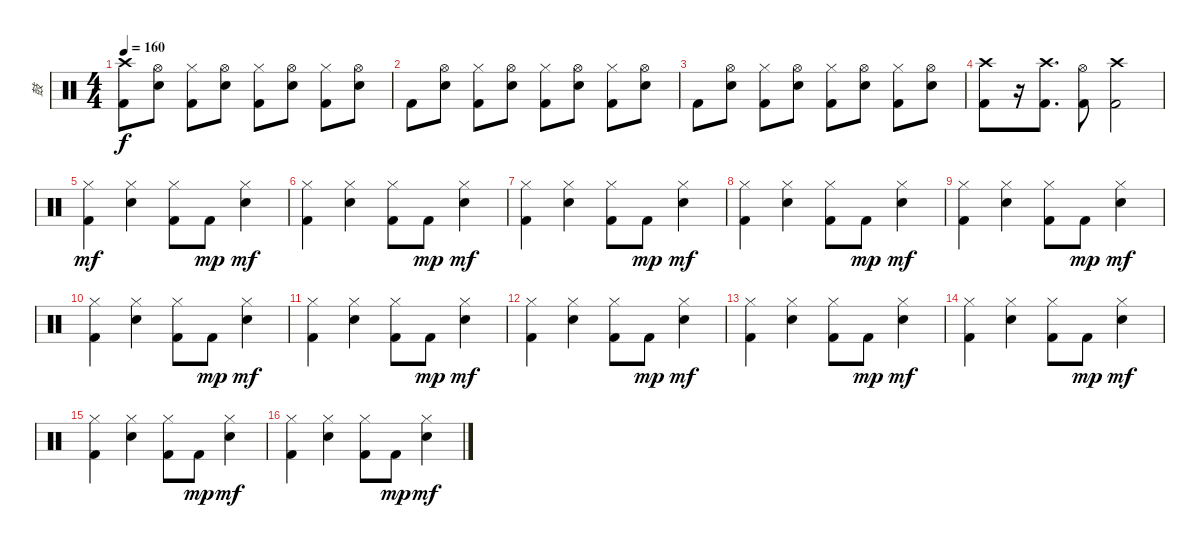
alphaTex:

\track ("鼓" "鼓") {instrument percussion}
\staff {score}
\articulation defaults
\ts (4 4)
\tempo 160
\clef neutral
\ks c
("Crash high (hit)" "Kick (hit) 2").8{dy f} ("Hi-Hat (open)" "Electric Snare (hit)").8 ("Hi-Hat (closed)" "Kick (hit) 2").8 ("Hi-Hat (open)" "Electric Snare (hit)").8 ("Hi-Hat (closed)" "Kick (hit) 2").8 ("Hi-Hat (open)" "Electric Snare (hit)").8 ("Hi-Hat (closed)" "Kick (hit) 2").8 ("Hi-Hat (open)" "Electric Snare (hit)").8 |
"Kick (hit) 2".8 ("Hi-Hat (open)" "Electric Snare (hit)").8 ("Hi-Hat (closed)" "Kick (hit) 2").8 ("Hi-Hat (open)" "Electric Snare (hit)").8 ("Hi-Hat (closed)" "Kick (hit) 2").8 ("Hi-Hat (open)" "Electric Snare (hit)").8 ("Hi-Hat (closed)" "Kick (hit) 2").8 ("Hi-Hat (open)" "Electric Snare (hit)").8 |
"Kick (hit) 2".8 ("Hi-Hat (open)" "Electric Snare (hit)").8 ("Hi-Hat (closed)" "Kick (hit) 2").8 ("Hi-Hat (open)" "Electric Snare (hit)").8 ("Hi-Hat (closed)" "Kick (hit) 2").8 ("Hi-Hat (open)" "Electric Snare (hit)").8 ("Hi-Hat (closed)" "Kick (hit) 2").8 ("Hi-Hat (open)" "Electric Snare (hit)").8 |
("Crash high (hit)" "Kick (hit) 2").8 r.16 ("Crash high (hit)" "Kick (hit) 2").8{d} ("Hi-Hat (open)" "Kick (hit) 2").8 ("Crash high (hit)" "Kick (hit) 2").2 |
("Hi-Hat (closed)" "Kick (hit) 2").4{dy mf} ("Snare (hit) 2" "Hi-Hat (closed)").4 ("Hi-Hat (closed)" "Kick (hit) 2").8 "Kick (hit) 2".8{dy mp} ("Snare (hit) 2" "Hi-Hat (closed)").4{dy mf} |
("Hi-Hat (closed)" "Kick (hit) 2").4 ("Snare (hit) 2" "Hi-Hat (closed)").4 ("Hi-Hat (closed)" "Kick (hit) 2").8 "Kick (hit) 2".8{dy mp} ("Snare (hit) 2" "Hi-Hat (closed)").4{dy mf} |
("Hi-Hat (closed)" "Kick (hit) 2").4 ("Snare (hit) 2" "Hi-Hat (closed)").4 ("Hi-Hat (closed)" "Kick (hit) 2").8 "Kick (hit) 2".8{dy mp} ("Snare (hit) 2" "Hi-Hat (closed)").4{dy mf} |
("Hi-Hat (closed)" "Kick (hit) 2").4 ("Snare (hit) 2" "Hi-Hat (closed)").4 ("Hi-Hat (closed)" "Kick (hit) 2").8 "Kick (hit) 2".8{dy mp} ("Snare (hit) 2" "Hi-Hat (closed)").4{dy mf} |
("Hi-Hat (closed)" "Kick (hit) 2").4 ("Snare (hit) 2" "Hi-Hat (closed)").4 ("Hi-Hat (closed)" "Kick (hit) 2").8 "Kick (hit) 2".8{dy mp} ("Snare (hit) 2" "Hi-Hat (closed)").4{dy mf} |
("Hi-Hat (closed)" "Kick (hit) 2").4 ("Snare (hit) 2" "Hi-Hat (closed)").4 ("Hi-Hat (closed)" "Kick (hit) 2").8 "Kick (hit) 2".8{dy mp} ("Snare (hit) 2" "Hi-Hat (closed)").4{dy mf} |
("Hi-Hat (closed)" "Kick (hit) 2").4 ("Snare (hit) 2" "Hi-Hat (closed)").4 ("Hi-Hat (closed)" "Kick (hit) 2").8 "Kick (hit) 2".8{dy mp} ("Snare (hit) 2" "Hi-Hat (closed)").4{dy mf} |
("Hi-Hat (closed)" "Kick (hit) 2").4 ("Snare (hit) 2" "Hi-Hat (closed)").4 ("Hi-Hat (closed)" "Kick (hit) 2").8 "Kick (hit) 2".8{dy mp} ("Snare (hit) 2" "Hi-Hat (closed)").4{dy mf} |
("Hi-Hat (closed)" "Kick (hit) 2").4 ("Snare (hit) 2" "Hi-Hat (closed)").4 ("Hi-Hat (closed)" "Kick (hit) 2").8 "Kick (hit) 2".8{dy mp} ("Snare (hit) 2" "Hi-Hat (closed)").4{dy mf} |
("Hi-Hat (closed)" "Kick (hit) 2").4 ("Snare (hit) 2" "Hi-Hat (closed)").4 ("Hi-Hat (closed)" "Kick (hit) 2").8 "Kick (hit) 2".8{dy mp} ("Snare (hit) 2" "Hi-Hat (closed)").4{dy mf} |
("Hi-Hat (closed)" "Kick (hit) 2").4 ("Snare (hit) 2" "Hi-Hat (closed)").4 ("Hi-Hat (closed)" "Kick (hit) 2").8 "Kick (hit) 2".8{dy mp} ("Snare (hit) 2" "Hi-Hat (closed)").4{dy mf} |
("Hi-Hat (closed)" "Kick (hit) 2").4 ("Snare (hit) 2" "Hi-Hat (closed)").4 ("Hi-Hat (closed)" "Kick (hit) 2").8 "Kick (hit) 2".8{dy mp} ("Snare (hit) 2" "Hi-Hat (closed)").4{dy mf}
